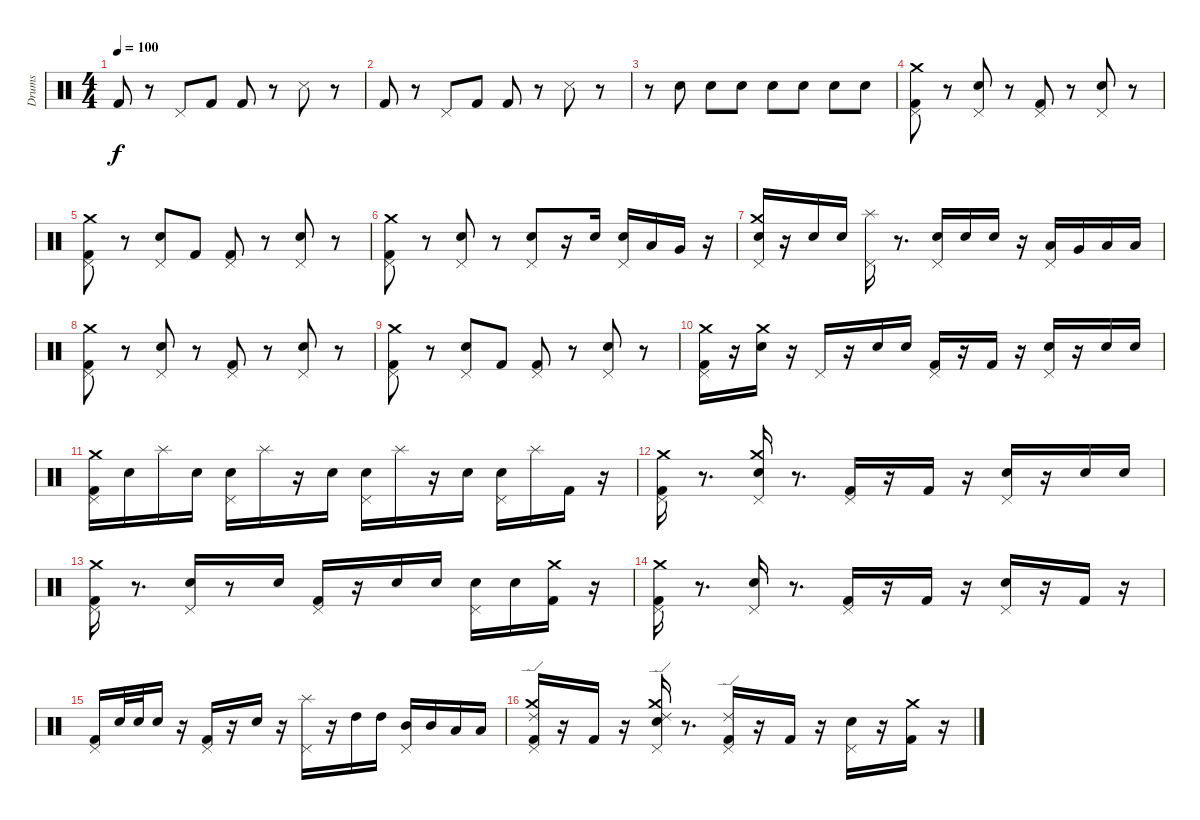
\track ("Drums" "Drums") {instrument percussion}
\staff {score}
\articulation defaults
\ts (4 4)
\tempo 100
\clef neutral
\ks c "Kick (hit) 2".8{dy f}
r.8 "Pedal Hi-Hat (hit)".8 "Kick (hit) 2".8 "Kick (hit) 2".8 r.8 "Snare (side stick) 3".8 r.8 |
"Kick (hit) 2".8 r.8 "Pedal Hi-Hat (hit)".8 "Kick (hit) 2".8 "Kick (hit) 2".8 r.8 "Snare (side stick) 3".8 r.8 |
r.8 "Electric Snare (hit)".8 "Electric Snare (hit)".8 "Electric Snare (hit)".8 "Electric Snare (hit)".8 "Electric Snare (hit)".8 "Electric Snare (hit)".8 "Electric Snare (hit)".8 |
("Pedal Hi-Hat (hit)" "Kick (hit) 2" "Crash medium (hit)").8{volume 16 balance 8} r.8 ("Pedal Hi-Hat (hit)" "Snare (hit) 2").8 r.8 ("Pedal Hi-Hat (hit)" "Kick (hit) 2").8 r.8 ("Pedal Hi-Hat (hit)" "Snare (hit) 2").8 r.8 |
("Pedal Hi-Hat (hit)" "Kick (hit) 2" "Crash medium (hit)").8 r.8 ("Pedal Hi-Hat (hit)" "Snare (hit) 2").8 "Kick (hit) 2".8 ("Pedal Hi-Hat (hit)" "Kick (hit) 2").8 r.8 ("Pedal Hi-Hat (hit)" "Snare (hit) 2").8 r.8 |
("Pedal Hi-Hat (hit)" "Kick (hit) 2" "Crash medium (hit)").8 r.8 ("Pedal Hi-Hat (hit)" "Snare (hit) 2").8 r.8 ("Pedal Hi-Hat (hit)" "Snare (hit) 2").8 r.16 "Snare (hit) 2".16 ("Pedal Hi-Hat (hit)" "Snare (hit) 2").16 "Low Tom (hit)".16 "Very Low Tom (hit)".16 r.16 |
("Pedal Hi-Hat (hit)" "Crash medium (hit)" "Snare (hit) 2").16 r.16 "Snare (hit) 2".16 "Snare (hit) 2".16 ("Pedal Hi-Hat (hit)" "Splash (hit)").16 r.8{d} ("Pedal Hi-Hat (hit)" "Snare (hit) 2").16 "Snare (hit) 2".16 "Snare (hit) 2".16 r.16 ("Pedal Hi-Hat (hit)" "Low Tom (hit)").16 "Very Low Tom (hit)".16 "Low Floor Tom (hit)".16 "Low Floor Tom (hit)".16 |
("Pedal Hi-Hat (hit)" "Kick (hit) 2" "Crash medium (hit)").8 r.8 ("Pedal Hi-Hat (hit)" "Snare (hit) 2").8 r.8 ("Pedal Hi-Hat (hit)" "Kick (hit) 2").8 r.8 ("Pedal Hi-Hat (hit)" "Snare (hit) 2").8 r.8 |
("Pedal Hi-Hat (hit)" "Kick (hit) 2" "Crash medium (hit)").8 r.8 ("Pedal Hi-Hat (hit)" "Snare (hit) 2").8 "Kick (hit) 2".8 ("Pedal Hi-Hat (hit)" "Kick (hit) 2").8 r.8 ("Pedal Hi-Hat (hit)" "Snare (hit) 2").8 r.8 |
("Pedal Hi-Hat (hit)" "Kick (hit) 2" "Crash medium (hit)").16 r.16 ("Crash medium (hit)" "Snare (hit) 2").16 r.16 "Pedal Hi-Hat (hit)".16 r.16 "Snare (hit) 2".16 "Snare (hit) 2".16 ("Pedal Hi-Hat (hit)" "Kick (hit) 2").16 r.16 "Kick (hit) 2".16 r.16 ("Pedal Hi-Hat (hit)" "Snare (hit) 2").16 r.16 "Snare (hit) 2".16 "Snare (hit) 2".16 |
("Pedal Hi-Hat (hit)" "Kick (hit) 2" "Crash medium (hit)").16 "Snare (hit) 2".16 "Splash (hit)".16 "Snare (hit) 2".16 ("Pedal Hi-Hat (hit)" "Snare (hit) 2").16 "Splash (hit)".16 r.16 "Snare (hit) 2".16 ("Pedal Hi-Hat (hit)" "Snare (hit) 2").16 "Splash (hit)".16 r.16 "Snare (hit) 2".16 ("Pedal Hi-Hat (hit)" "Snare (hit) 2").16 "Splash (hit)".16 "Kick (hit) 2".16 r.16 |
("Pedal Hi-Hat (hit)" "Crash medium (hit)" "Kick (hit) 2").16 r.8{d} ("Pedal Hi-Hat (hit)" "Crash medium (hit)" "Snare (hit) 2").16 r.8{d} ("Pedal Hi-Hat (hit)" "Kick (hit) 2").16 r.16 "Kick (hit) 2".16 r.16 ("Pedal Hi-Hat (hit)" "Snare (hit) 2").16 r.16 "Snare (hit) 2".16 "Snare (hit) 2".16 |
("Pedal Hi-Hat (hit)" "Kick (hit) 2" "Crash medium (hit)").16 r.8{d} ("Pedal Hi-Hat (hit)" "Snare (hit) 2").16 r.8 "Snare (hit) 2".16 ("Pedal Hi-Hat (hit)" "Kick (hit) 2").16 r.16 "Snare (hit) 2".16 "Snare (hit) 2".16 ("Pedal Hi-Hat (hit)" "Snare (hit) 2").16 "Snare (hit) 2".16 ("Crash medium (hit)" "Kick (hit) 2").16 r.16 |
("Pedal Hi-Hat (hit)" "Kick (hit) 2" "Crash medium (hit)").16 r.8{d} ("Pedal Hi-Hat (hit)" "Snare (hit) 2").16 r.8{d} ("Pedal Hi-Hat (hit)" "Kick (hit) 2").16 r.16 "Kick (hit) 2".16 r.16 ("Pedal Hi-Hat (hit)" "Snare (hit) 2").16 r.16 "Kick (hit) 2".16 r.16 |
("Pedal Hi-Hat (hit)" "Kick (hit) 2").16 "Snare (hit) 2".32 "Snare (hit) 2".32 "Snare (hit) 2".16 r.16 ("Pedal Hi-Hat (hit)" "Kick (hit) 2").16 r.16 "Snare (hit) 2".16 r.16 ("Pedal Hi-Hat (hit)" "Splash (hit)").16 r.16 "High Tom (hit)".16 "High Tom (hit)".16 ("Pedal Hi-Hat (hit)" "Mid Tom (hit)").16 "Mid Tom (hit)".16 "Low Tom (hit)".16 "Low Tom (hit)".16 |
("Ride (edge) 2" "Pedal Hi-Hat (hit)" "Kick (hit) 2" "Crash medium (hit)").16 r.16 "Kick (hit) 2".16 r.16 ("Ride (edge) 2" "Pedal Hi-Hat (hit)" "Crash medium (hit)" "Snare (hit) 2").16 r.8{d} ("Ride (edge) 2" "Pedal Hi-Hat (hit)" "Kick (hit) 2").16 r.16 "Kick (hit) 2".16 r.16 ("Pedal Hi-Hat (hit)" "Snare (hit) 2").16 r.16 ("Crash medium (hit)" "Kick (hit) 2").16 r.16
